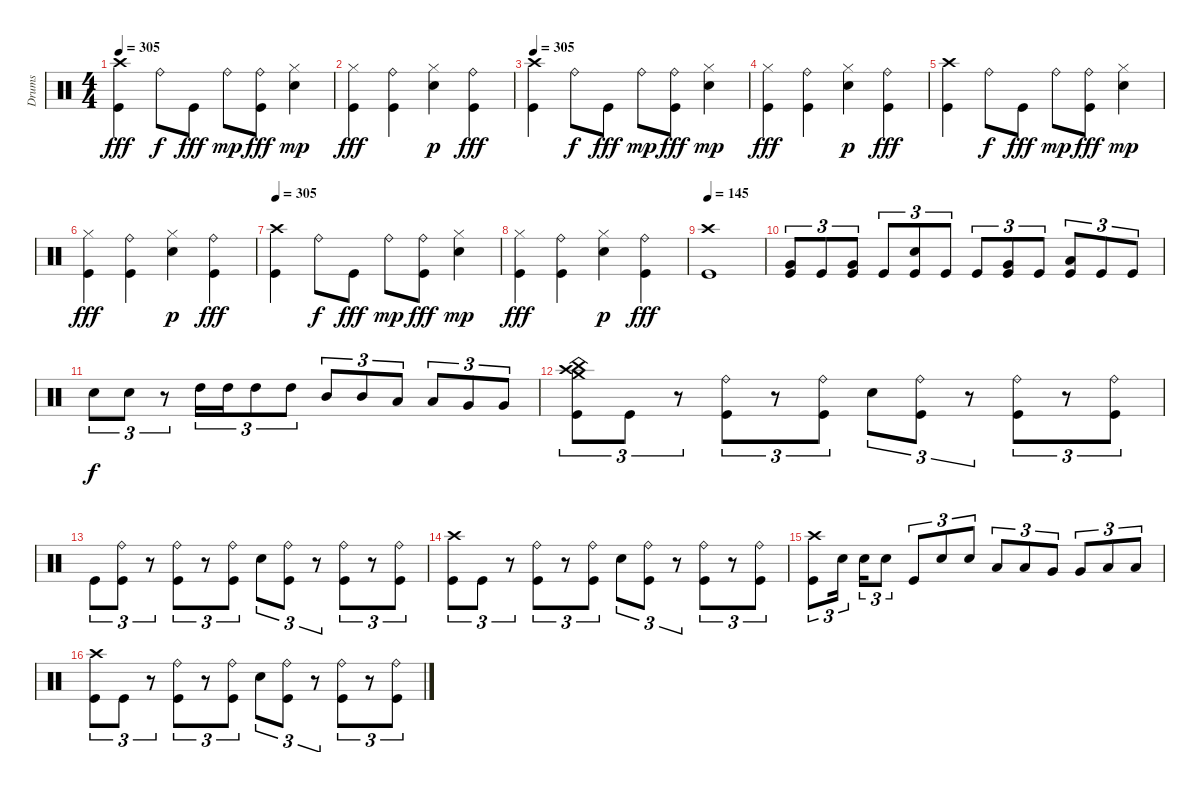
\track ("Drums" "Drums") {instrument percussion}
\staff {score}
\articulation defaults
\ts (4 4)
\tempo 305
\clef neutral
\ks c
("Crash high (hit)" "Kick (hit)").4{dy fff} "Ride (bell)".8{dy f} "Kick (hit)".8{dy fff} "Ride (bell)".8{dy mp} ("Ride (bell)" "Kick (hit)").8{dy fff} ("Hi-Hat (closed)" "Electric Snare (hit)").4{dy mp} |
("Hi-Hat (closed)" "Kick (hit)").4{dy fff} ("Ride (bell)" "Kick (hit)").4 ("Hi-Hat (closed)" "Electric Snare (hit)").4{dy p} ("Ride (bell)" "Kick (hit)").4{dy fff} |
\tempo 305
("Crash high (hit)" "Kick (hit)").4 "Ride (bell)".8{dy f} "Kick (hit)".8{dy fff} "Ride (bell)".8{dy mp} ("Ride (bell)" "Kick (hit)").8{dy fff} ("Hi-Hat (closed)" "Electric Snare (hit)").4{dy mp} |
("Hi-Hat (closed)" "Kick (hit)").4{dy fff} ("Ride (bell)" "Kick (hit)").4 ("Hi-Hat (closed)" "Electric Snare (hit)").4{dy p} ("Ride (bell)" "Kick (hit)").4{dy fff} |
("Crash high (hit)" "Kick (hit)").4 "Ride (bell)".8{dy f} "Kick (hit)".8{dy fff} "Ride (bell)".8{dy mp} ("Ride (bell)" "Kick (hit)").8{dy fff} ("Hi-Hat (closed)" "Electric Snare (hit)").4{dy mp} |
("Hi-Hat (closed)" "Kick (hit)").4{dy fff} ("Ride (bell)" "Kick (hit)").4 ("Hi-Hat (closed)" "Electric Snare (hit)").4{dy p} ("Ride (bell)" "Kick (hit)").4{dy fff} |
\tempo 305
("Crash high (hit)" "Kick (hit)").4 "Ride (bell)".8{dy f} "Kick (hit)".8{dy fff} "Ride (bell)".8{dy mp} ("Ride (bell)" "Kick (hit)").8{dy fff} ("Hi-Hat (closed)" "Electric Snare (hit)").4{dy mp} |
("Hi-Hat (closed)" "Kick (hit)").4{dy fff} ("Ride (bell)" "Kick (hit)").4 ("Hi-Hat (closed)" "Electric Snare (hit)").4{dy p} ("Ride (bell)" "Kick (hit)").4{dy fff} |
\tempo 145
("Crash high (hit)" "Kick (hit)").1 |
("Very Low Tom (hit)" "Kick (hit)").8{tu (3 2)} "Kick (hit)".8{tu (3 2)} ("Very Low Tom (hit)" "Kick (hit)").8{tu (3 2)} "Kick (hit)".8{tu (3 2)} ("Electric Snare (hit)" "Kick (hit)").8{tu (3 2)} "Kick (hit)".8{tu (3 2)} "Kick (hit)".8{tu (3 2)} ("Very Low Tom (hit)" "Kick (hit)").8{tu (3 2)} "Kick (hit)".8{tu (3 2)} ("Low Floor Tom (hit)" "Kick (hit)").8{tu (3 2)} "Kick (hit)".8{tu (3 2)} "Kick (hit)".8{tu (3 2)} |
"Electric Snare (hit)".8{tu (3 2) dy f} "Electric Snare (hit)".8{tu (3 2)} r.8{tu (3 2)} "High Tom (hit)".16{tu (3 2)} "High Tom (hit)".16{tu (3 2)} "High Tom (hit)".8{tu (3 2)} "High Tom (hit)".8{tu (3 2)} "Mid Tom (hit)".8{tu (3 2)} "Mid Tom (hit)".8{tu (3 2)} "Low Tom (hit)".8{tu (3 2)} "Low Tom (hit)".8{tu (3 2)} "Very Low Tom (hit)".8{tu (3 2)} "Very Low Tom (hit)".8{tu (3 2)} |
("Crash high (hit)" "China (hit)" "Crash medium (hit)" "Kick (hit)").8{tu (3 2)} "Kick (hit)".8{tu (3 2)} r.8{tu (3 2)} ("Ride (bell)" "Kick (hit)").8{tu (3 2)} r.8{tu (3 2)} ("Ride (bell)" "Kick (hit)").8{tu (3 2)} "Electric Snare (hit)".8{tu (3 2)} ("Ride (bell)" "Kick (hit)").8{tu (3 2)} r.8{tu (3 2)} ("Ride (bell)" "Kick (hit)").8{tu (3 2)} r.8{tu (3 2)} ("Ride (bell)" "Kick (hit)").8{tu (3 2)} |
"Kick (hit)".8{tu (3 2)} ("Ride (bell)" "Kick (hit)").8{tu (3 2)} r.8{tu (3 2)} ("Ride (bell)" "Kick (hit)").8{tu (3 2)} r.8{tu (3 2)} ("Ride (bell)" "Kick (hit)").8{tu (3 2)} "Electric Snare (hit)".8{tu (3 2)} ("Ride (bell)" "Kick (hit)").8{tu (3 2)} r.8{tu (3 2)} ("Ride (bell)" "Kick (hit)").8{tu (3 2)} r.8{tu (3 2)} ("Ride (bell)" "Kick (hit)").8{tu (3 2)} |
("Crash high (hit)" "Kick (hit)").8{tu (3 2)} "Kick (hit)".8{tu (3 2)} r.8{tu (3 2)} ("Ride (bell)" "Kick (hit)").8{tu (3 2)} r.8{tu (3 2)} ("Ride (bell)" "Kick (hit)").8{tu (3 2)} "Electric Snare (hit)".8{tu (3 2)} ("Ride (bell)" "Kick (hit)").8{tu (3 2)} r.8{tu (3 2)} ("Ride (bell)" "Kick (hit)").8{tu (3 2)} r.8{tu (3 2)} ("Ride (bell)" "Kick (hit)").8{tu (3 2)} |
("Crash high (hit)" "Kick (hit)").8{tu (3 2)} "Electric Snare (hit)".16{tu (3 2)} "Electric Snare (hit)".16{tu (3 2)} "Electric Snare (hit)".8{tu (3 2)} "Kick (hit)".8{tu (3 2)} "Electric Snare (hit)".8{tu (3 2)} "Electric Snare (hit)".8{tu (3 2)} "Low Tom (hit)".8{tu (3 2)} "Low Tom (hit)".8{tu (3 2)} "Very Low Tom (hit)".8{tu (3 2)} "Very Low Tom (hit)".8{tu (3 2)} "Low Floor Tom (hit)".8{tu (3 2)} "Low Floor Tom (hit)".8{tu (3 2)} |
("Crash high (hit)" "Kick (hit)").8{tu (3 2)} "Kick (hit)".8{tu (3 2)} r.8{tu (3 2)} ("Ride (bell)" "Kick (hit)").8{tu (3 2)} r.8{tu (3 2)} ("Ride (bell)" "Kick (hit)").8{tu (3 2)} "Electric Snare (hit)".8{tu (3 2)} ("Ride (bell)" "Kick (hit)").8{tu (3 2)} r.8{tu (3 2)} ("Ride (bell)" "Kick (hit)").8{tu (3 2)} r.8{tu (3 2)} ("Ride (bell)" "Kick (hit)").8{tu (3 2)}
